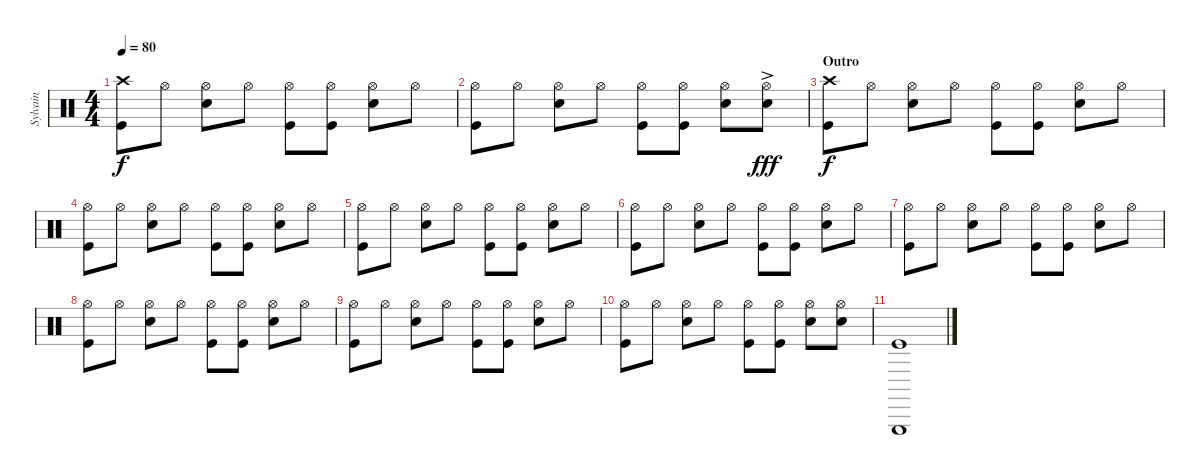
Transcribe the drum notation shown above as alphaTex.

\track ("Sylvain" "Sylvain") {instrument percussion}
\staff {score}
\articulation defaults
\ts (4 4)
\tempo 80
\clef neutral
\ks c
("Crash high (hit)" "Kick (hit)").8{dy f} "Hi-Hat (open)".8 ("Hi-Hat (open)" "Electric Snare (hit)").8 "Hi-Hat (open)".8 ("Hi-Hat (open)" "Kick (hit)").8 ("Hi-Hat (open)" "Kick (hit)").8 ("Hi-Hat (open)" "Electric Snare (hit)").8 "Hi-Hat (open)".8 |
("Hi-Hat (open)" "Kick (hit)").8 "Hi-Hat (open)".8 ("Hi-Hat (open)" "Electric Snare (hit)").8 "Hi-Hat (open)".8 ("Hi-Hat (open)" "Kick (hit)").8 ("Hi-Hat (open)" "Kick (hit)").8 ("Hi-Hat (open)" "Electric Snare (hit)").8 ("Hi-Hat (open)" "Electric Snare (hit)"{ac}).8{dy fff} |
\section ("" "Outro ")
("Crash high (hit)" "Kick (hit)").8{dy f} "Hi-Hat (open)".8 ("Hi-Hat (open)" "Electric Snare (hit)").8 "Hi-Hat (open)".8 ("Hi-Hat (open)" "Kick (hit)").8 ("Hi-Hat (open)" "Kick (hit)").8 ("Hi-Hat (open)" "Electric Snare (hit)").8 "Hi-Hat (open)".8 |
("Hi-Hat (open)" "Kick (hit)").8 "Hi-Hat (open)".8 ("Hi-Hat (open)" "Electric Snare (hit)").8 "Hi-Hat (open)".8 ("Hi-Hat (open)" "Kick (hit)").8 ("Hi-Hat (open)" "Kick (hit)").8 ("Hi-Hat (open)" "Electric Snare (hit)").8 "Hi-Hat (open)".8 |
("Hi-Hat (open)" "Kick (hit)").8 "Hi-Hat (open)".8 ("Hi-Hat (open)" "Electric Snare (hit)").8 "Hi-Hat (open)".8 ("Hi-Hat (open)" "Kick (hit)").8 ("Hi-Hat (open)" "Kick (hit)").8 ("Hi-Hat (open)" "Electric Snare (hit)").8 "Hi-Hat (open)".8 |
("Hi-Hat (open)" "Kick (hit)").8 "Hi-Hat (open)".8 ("Hi-Hat (open)" "Electric Snare (hit)").8 "Hi-Hat (open)".8 ("Hi-Hat (open)" "Kick (hit)").8 ("Hi-Hat (open)" "Kick (hit)").8 ("Hi-Hat (open)" "Electric Snare (hit)").8 "Hi-Hat (open)".8 |
("Hi-Hat (open)" "Kick (hit)").8 "Hi-Hat (open)".8 ("Hi-Hat (open)" "Electric Snare (hit)").8 "Hi-Hat (open)".8 ("Hi-Hat (open)" "Kick (hit)").8 ("Hi-Hat (open)" "Kick (hit)").8 ("Hi-Hat (open)" "Electric Snare (hit)").8 "Hi-Hat (open)".8 |
("Hi-Hat (open)" "Kick (hit)").8 "Hi-Hat (open)".8 ("Hi-Hat (open)" "Electric Snare (hit)").8 "Hi-Hat (open)".8 ("Hi-Hat (open)" "Kick (hit)").8 ("Hi-Hat (open)" "Kick (hit)").8 ("Hi-Hat (open)" "Electric Snare (hit)").8 "Hi-Hat (open)".8 |
("Hi-Hat (open)" "Kick (hit)").8 "Hi-Hat (open)".8 ("Hi-Hat (open)" "Electric Snare (hit)").8 "Hi-Hat (open)".8 ("Hi-Hat (open)" "Kick (hit)").8 ("Hi-Hat (open)" "Kick (hit)").8 ("Hi-Hat (open)" "Electric Snare (hit)").8 "Hi-Hat (open)".8 |
("Hi-Hat (open)" "Kick (hit)").8 "Hi-Hat (open)".8 ("Hi-Hat (open)" "Electric Snare (hit)").8 "Hi-Hat (open)".8 ("Hi-Hat (open)" "Kick (hit)").8 ("Hi-Hat (open)" "Kick (hit)").8 ("Hi-Hat (open)" "Electric Snare (hit)").8 ("Hi-Hat (open)" "Electric Snare (hit)").8 |
("Triangle (hit)" "Kick (hit)").1
